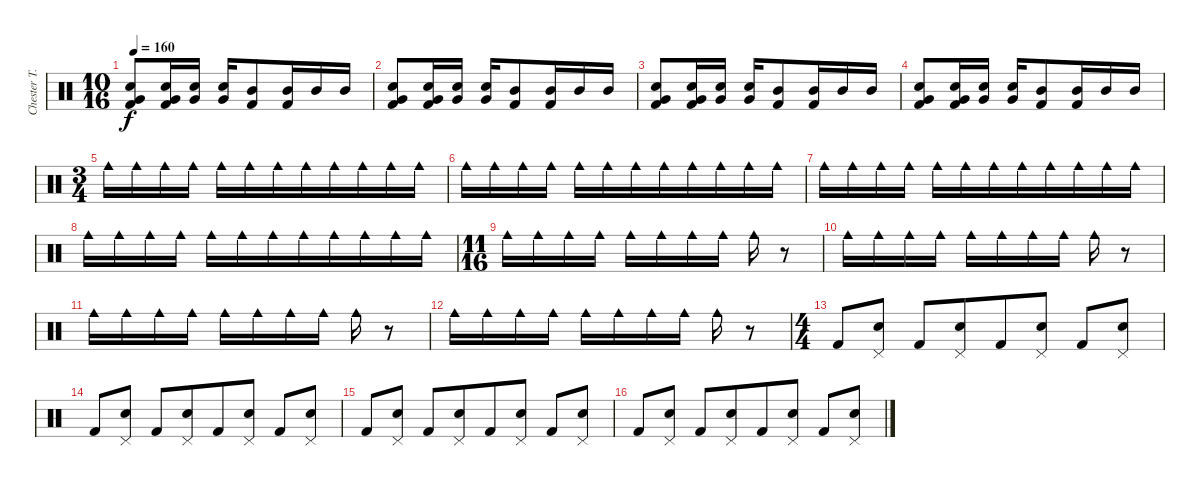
\track ("Chester T." "Chester T.") {instrument percussion}
\staff {score}
\articulation defaults
\ts (10 16)
\tempo 160
\clef neutral
\ks c
("Very Low Tom (hit)" "Electric Snare (hit)" "Kick (hit) 2").8{dy f beam merge} ("Very Low Tom (hit)" "Electric Snare (hit)" "Kick (hit) 2").16{beam merge} ("Very Low Tom (hit)" "Electric Snare (hit)").16 ("Very Low Tom (hit)" "Electric Snare (hit)").16 ("Mid Tom (hit)" "Kick (hit) 2").8 ("Mid Tom (hit)" "Kick (hit) 2").16{beam merge} "Mid Tom (hit)".16 "Mid Tom (hit)".16 |
("Very Low Tom (hit)" "Electric Snare (hit)" "Kick (hit) 2").8{beam merge} ("Very Low Tom (hit)" "Electric Snare (hit)" "Kick (hit) 2").16{beam merge} ("Very Low Tom (hit)" "Electric Snare (hit)").16 ("Very Low Tom (hit)" "Electric Snare (hit)").16 ("Mid Tom (hit)" "Kick (hit) 2").8 ("Mid Tom (hit)" "Kick (hit) 2").16{beam merge} "Mid Tom (hit)".16 "Mid Tom (hit)".16 |
("Very Low Tom (hit)" "Electric Snare (hit)" "Kick (hit) 2").8{beam merge} ("Very Low Tom (hit)" "Electric Snare (hit)" "Kick (hit) 2").16{beam merge} ("Very Low Tom (hit)" "Electric Snare (hit)").16 ("Very Low Tom (hit)" "Electric Snare (hit)").16 ("Mid Tom (hit)" "Kick (hit) 2").8 ("Mid Tom (hit)" "Kick (hit) 2").16{beam merge} "Mid Tom (hit)".16 "Mid Tom (hit)".16 |
("Very Low Tom (hit)" "Electric Snare (hit)" "Kick (hit) 2").8{beam merge} ("Very Low Tom (hit)" "Electric Snare (hit)" "Kick (hit) 2").16{beam merge} ("Very Low Tom (hit)" "Electric Snare (hit)").16 ("Very Low Tom (hit)" "Electric Snare (hit)").16 ("Mid Tom (hit)" "Kick (hit) 2").8 ("Mid Tom (hit)" "Kick (hit) 2").16{beam merge} "Mid Tom (hit)".16 "Mid Tom (hit)".16 |
\ts (3 4)
"Cowbell medium (hit)".16{beam merge} "Cowbell medium (hit)".16{beam merge} "Cowbell medium (hit)".16 "Cowbell medium (hit)".16 "Cowbell medium (hit)".16 "Cowbell medium (hit)".16{beam merge} "Cowbell medium (hit)".16{beam merge} "Cowbell medium (hit)".16{beam merge} "Cowbell medium (hit)".16{beam merge} "Cowbell medium (hit)".16{beam merge} "Cowbell medium (hit)".16{beam merge} "Cowbell medium (hit)".16 |
"Cowbell medium (hit)".16{beam merge} "Cowbell medium (hit)".16{beam merge} "Cowbell medium (hit)".16 "Cowbell medium (hit)".16 "Cowbell medium (hit)".16 "Cowbell medium (hit)".16{beam merge} "Cowbell medium (hit)".16{beam merge} "Cowbell medium (hit)".16{beam merge} "Cowbell medium (hit)".16{beam merge} "Cowbell medium (hit)".16{beam merge} "Cowbell medium (hit)".16{beam merge} "Cowbell medium (hit)".16 |
"Cowbell medium (hit)".16{beam merge} "Cowbell medium (hit)".16{beam merge} "Cowbell medium (hit)".16 "Cowbell medium (hit)".16 "Cowbell medium (hit)".16 "Cowbell medium (hit)".16{beam merge} "Cowbell medium (hit)".16{beam merge} "Cowbell medium (hit)".16{beam merge} "Cowbell medium (hit)".16{beam merge} "Cowbell medium (hit)".16{beam merge} "Cowbell medium (hit)".16{beam merge} "Cowbell medium (hit)".16 |
"Cowbell medium (hit)".16{beam merge} "Cowbell medium (hit)".16{beam merge} "Cowbell medium (hit)".16 "Cowbell medium (hit)".16 "Cowbell medium (hit)".16 "Cowbell medium (hit)".16{beam merge} "Cowbell medium (hit)".16{beam merge} "Cowbell medium (hit)".16{beam merge} "Cowbell medium (hit)".16{beam merge} "Cowbell medium (hit)".16{beam merge} "Cowbell medium (hit)".16{beam merge} "Cowbell medium (hit)".16 |
\ts (11 16)
"Cowbell medium (hit)".16 "Cowbell medium (hit)".16{beam merge} "Cowbell medium (hit)".16{beam merge} "Cowbell medium (hit)".16 "Cowbell medium (hit)".16{beam merge} "Cowbell medium (hit)".16 "Cowbell medium (hit)".16{beam merge} "Cowbell medium (hit)".16 "Cowbell medium (hit)".16{beam merge} r.8 |
"Cowbell medium (hit)".16 "Cowbell medium (hit)".16{beam merge} "Cowbell medium (hit)".16{beam merge} "Cowbell medium (hit)".16 "Cowbell medium (hit)".16{beam merge} "Cowbell medium (hit)".16 "Cowbell medium (hit)".16{beam merge} "Cowbell medium (hit)".16 "Cowbell medium (hit)".16{beam merge} r.8 |
"Cowbell medium (hit)".16 "Cowbell medium (hit)".16{beam merge} "Cowbell medium (hit)".16{beam merge} "Cowbell medium (hit)".16 "Cowbell medium (hit)".16{beam merge} "Cowbell medium (hit)".16 "Cowbell medium (hit)".16{beam merge} "Cowbell medium (hit)".16 "Cowbell medium (hit)".16{beam merge} r.8 |
"Cowbell medium (hit)".16 "Cowbell medium (hit)".16{beam merge} "Cowbell medium (hit)".16{beam merge} "Cowbell medium (hit)".16 "Cowbell medium (hit)".16{beam merge} "Cowbell medium (hit)".16 "Cowbell medium (hit)".16{beam merge} "Cowbell medium (hit)".16 "Cowbell medium (hit)".16{beam merge} r.8 |
\ts (4 4)
"Kick (hit) 2".8 ("Electric Snare (hit)" "Pedal Hi-Hat (hit)").8 "Kick (hit) 2".8 ("Electric Snare (hit)" "Pedal Hi-Hat (hit)").8{beam merge} "Kick (hit) 2".8 ("Electric Snare (hit)" "Pedal Hi-Hat (hit)").8 "Kick (hit) 2".8{beam merge} ("Electric Snare (hit)" "Pedal Hi-Hat (hit)").8 |
"Kick (hit) 2".8 ("Electric Snare (hit)" "Pedal Hi-Hat (hit)").8 "Kick (hit) 2".8 ("Electric Snare (hit)" "Pedal Hi-Hat (hit)").8{beam merge} "Kick (hit) 2".8 ("Electric Snare (hit)" "Pedal Hi-Hat (hit)").8 "Kick (hit) 2".8{beam merge} ("Electric Snare (hit)" "Pedal Hi-Hat (hit)").8 |
"Kick (hit) 2".8 ("Electric Snare (hit)" "Pedal Hi-Hat (hit)").8 "Kick (hit) 2".8 ("Electric Snare (hit)" "Pedal Hi-Hat (hit)").8{beam merge} "Kick (hit) 2".8 ("Electric Snare (hit)" "Pedal Hi-Hat (hit)").8 "Kick (hit) 2".8{beam merge} ("Electric Snare (hit)" "Pedal Hi-Hat (hit)").8 |
"Kick (hit) 2".8 ("Electric Snare (hit)" "Pedal Hi-Hat (hit)").8 "Kick (hit) 2".8 ("Electric Snare (hit)" "Pedal Hi-Hat (hit)").8{beam merge} "Kick (hit) 2".8 ("Electric Snare (hit)" "Pedal Hi-Hat (hit)").8 "Kick (hit) 2".8{beam merge} ("Electric Snare (hit)" "Pedal Hi-Hat (hit)").8
